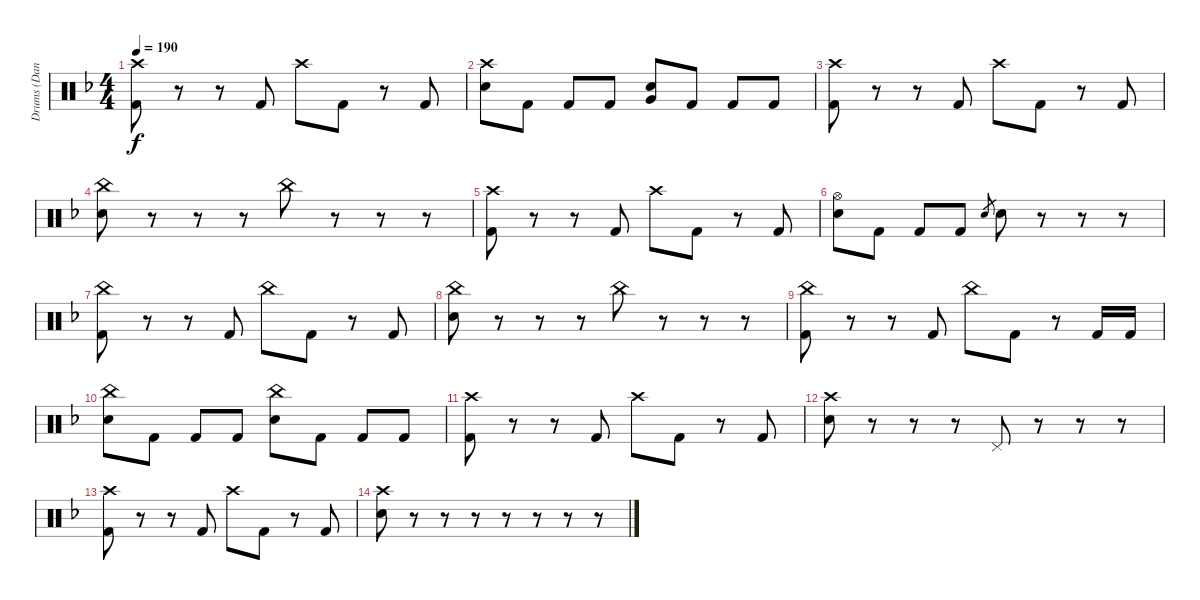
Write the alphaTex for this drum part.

\track ("Drums (Daniel)" "Drums (Dan") {instrument percussion}
\staff {score}
\articulation defaults
\ts (4 4)
\tempo 190
\clef neutral
\ks dminor
("Crash high (hit)" "Kick (hit) 2").8{dy f} r.8 r.8 "Kick (hit) 2".8 "Crash high (hit)".8 "Kick (hit) 2".8 r.8 "Kick (hit) 2".8 |
("Crash high (hit)" "Electric Snare (hit)").8 "Kick (hit) 2".8 "Kick (hit) 2".8 "Kick (hit) 2".8 ("Very Low Tom (hit)" "Electric Snare (hit)").8 "Kick (hit) 2".8 "Kick (hit) 2".8 "Kick (hit) 2".8 |
("Crash high (hit)" "Kick (hit) 2").8 r.8 r.8 "Kick (hit) 2".8 "Crash high (hit)".8 "Kick (hit) 2".8 r.8 "Kick (hit) 2".8 |
("China (hit)" "Electric Snare (hit)").8 r.8 r.8 r.8 "China (hit)".8 r.8 r.8 r.8 |
("Crash high (hit)" "Kick (hit) 2").8 r.8 r.8 "Kick (hit) 2".8 "Crash high (hit)".8 "Kick (hit) 2".8 r.8 "Kick (hit) 2".8 |
("Hi-Hat (open)" "Electric Snare (hit)").8 "Kick (hit) 2".8 "Kick (hit) 2".8 "Kick (hit) 2".8 "Electric Snare (hit)".8{gr} "Electric Snare (hit)".8 r.8 r.8 r.8 |
("China (hit)" "Kick (hit) 2").8 r.8 r.8 "Kick (hit) 2".8 "China (hit)".8 "Kick (hit) 2".8 r.8 "Kick (hit) 2".8 |
("China (hit)" "Electric Snare (hit)").8 r.8 r.8 r.8 "China (hit)".8 r.8 r.8 r.8 |
("China (hit)" "Kick (hit) 2").8 r.8 r.8 "Kick (hit) 2".8 "China (hit)".8 "Kick (hit) 2".8 r.8 "Kick (hit) 2".16 "Kick (hit) 2".16 |
("China (hit)" "Electric Snare (hit)").8 "Kick (hit) 2".8 "Kick (hit) 2".8 "Kick (hit) 2".8 ("China (hit)" "Electric Snare (hit)").8 "Kick (hit) 2".8 "Kick (hit) 2".8 "Kick (hit) 2".8 |
("Crash high (hit)" "Kick (hit) 2").8 r.8 r.8 "Kick (hit) 2".8 "Crash high (hit)".8 "Kick (hit) 2".8 r.8 "Kick (hit) 2".8 |
("Crash high (hit)" "Electric Snare (hit)").8 r.8 r.8 r.8 "Pedal Hi-Hat (hit)".8 r.8 r.8 r.8 |
("Crash high (hit)" "Kick (hit) 2").8 r.8 r.8 "Kick (hit) 2".8 "Crash high (hit)".8 "Kick (hit) 2".8 r.8 "Kick (hit) 2".8 |
("Crash high (hit)" "Electric Snare (hit)").8 r.8 r.8 r.8 r.8 r.8 r.8 r.8
